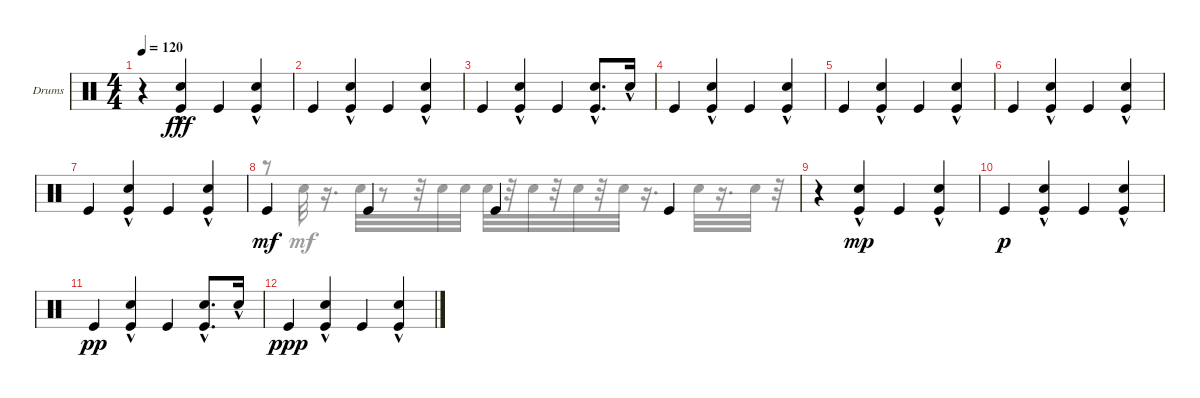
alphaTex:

\defaultSystemsLayout 4
\bracketExtendMode groupsimilarinstruments
\firstSystemTrackNameOrientation horizontal
\otherSystemsTrackNameOrientation horizontal
\track ("Drumkit" "Drums") {instrument percussion}
\staff {score}
\articulation defaults
\voice
\ts (4 4)
\tempo 120
\clef neutral
\scale
0.333333
\ks c
r.4{dy fff} ("Kick (hit)" "Snare (hit) 2"{hac}).4 "Kick (hit)".4 ("Kick (hit)" "Snare (hit) 2"{hac}).4 |
\scale
0.333333 "Kick (hit)".4 ("Kick (hit)" "Snare (hit) 2"{hac}).4 "Kick (hit)".4 ("Kick (hit)" "Snare (hit) 2"{hac}).4 |
\scale
0.333333 "Kick (hit)".4 ("Kick (hit)" "Snare (hit) 2"{hac}).4 "Kick (hit)".4 ("Kick (hit)" "Snare (hit) 2"{hac}).8{d} "Snare (hit) 2"{hac}.16 |
\scale
0.333333 "Kick (hit)".4 ("Kick (hit)" "Snare (hit) 2"{hac}).4 "Kick (hit)".4 ("Kick (hit)" "Snare (hit) 2"{hac}).4 |
\scale
0.333333 "Kick (hit)".4 ("Kick (hit)" "Snare (hit) 2"{hac}).4 "Kick (hit)".4 ("Kick (hit)" "Snare (hit) 2"{hac}).4 |
\scale
0.333333 "Kick (hit)".4 ("Kick (hit)" "Snare (hit) 2"{hac}).4 "Kick (hit)".4 ("Kick (hit)" "Snare (hit) 2"{hac}).4 |
\scale
0.333333 "Kick (hit)".4 ("Kick (hit)" "Snare (hit) 2"{hac}).4 "Kick (hit)".4 ("Kick (hit)" "Snare (hit) 2"{hac}).4 |
\scale
0.333333 "Kick (hit)".4{dy mf} "Kick (hit)".4 "Kick (hit)".4 "Kick (hit)".4 |
\scale
0.333333 r.4 ("Kick (hit)" "Snare (hit) 2"{hac}).4{dy mp} "Kick (hit)".4 ("Kick (hit)" "Snare (hit) 2"{hac}).4 |
\scale
0.333333 "Kick (hit)".4{dy p} ("Kick (hit)" "Snare (hit) 2"{hac}).4 "Kick (hit)".4 ("Kick (hit)" "Snare (hit) 2"{hac}).4 |
\scale
0.333333 "Kick (hit)".4{dy pp} ("Kick (hit)" "Snare (hit) 2"{hac}).4 "Kick (hit)".4 ("Kick (hit)" "Snare (hit) 2"{hac}).8{d} "Snare (hit) 2"{hac}.16 |
"Kick (hit)".4{dy ppp} ("Kick (hit)" "Snare (hit) 2"{hac}).4 "Kick (hit)".4 ("Kick (hit)" "Snare (hit) 2"{hac}).4
\voice
\clef neutral
\ottava regular
\simile none
\scale
0.333333
\ks c
|
\scale
0.333333 |
\scale
0.333333 |
\scale
0.333333 |
\scale
0.333333 |
\scale
0.333333 |
\scale
0.333333 |
\scale
0.333333 r.8 "Snare (hit) 2".32{dy mf} r.16{d} "Snare (hit) 2".32 r.8 r.32 "Snare (hit) 2".32 "Snare (hit) 2".32 "Snare (hit) 2".32 r.32 "Snare (hit) 2".32 r.32 "Snare (hit) 2".32 r.32 "Snare (hit) 2".32 r.16{d} "Snare (hit) 2".32 r.16{d} "Snare (hit) 2".32 r.32 |
\scale
0.333333 |
\scale
0.333333 |
\scale
0.333333 |
